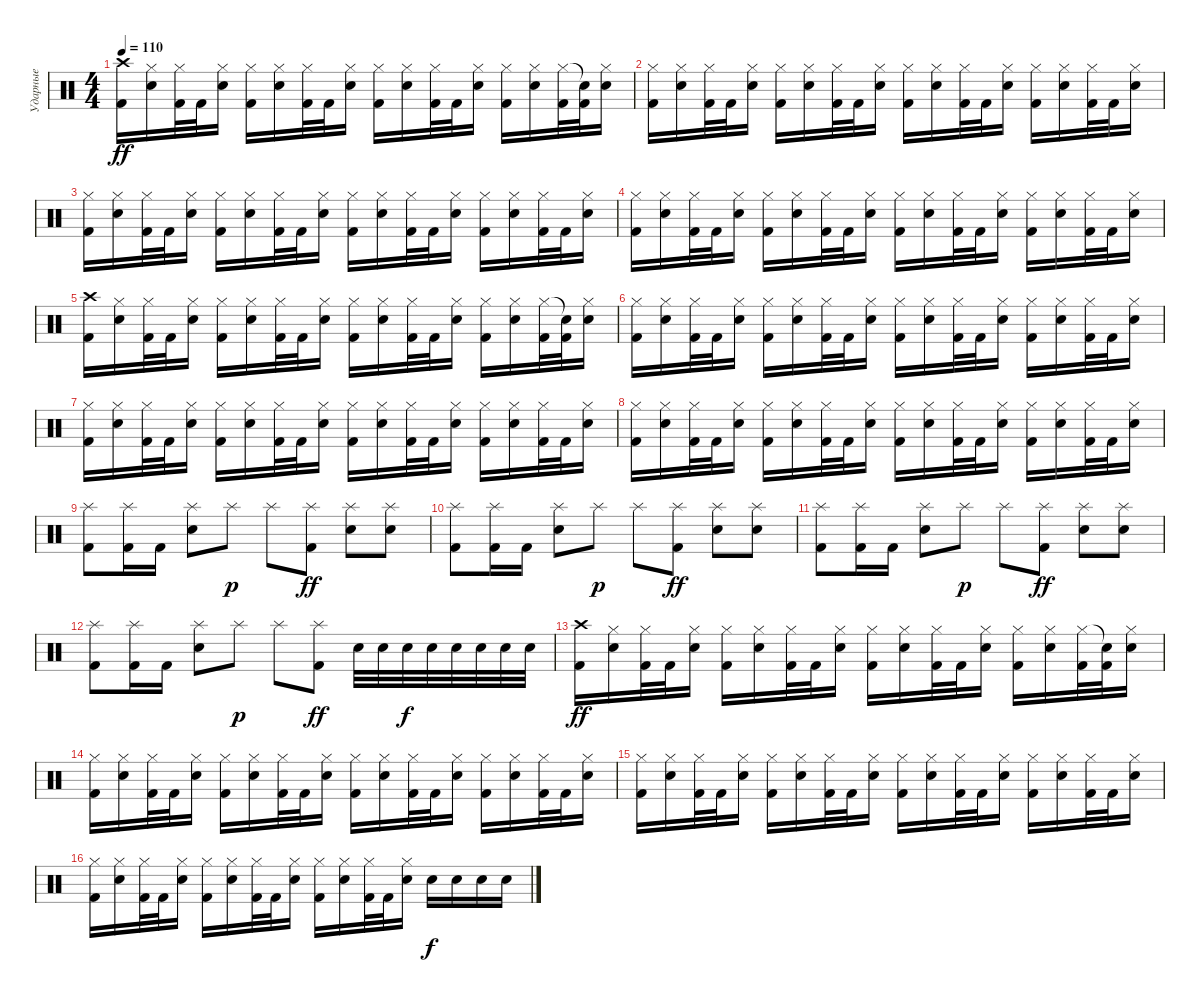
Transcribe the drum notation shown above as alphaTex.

\track ("Ударные" "Ударные") {instrument percussion}
\staff {score}
\articulation defaults
\ts (4 4)
\tempo 110
\clef neutral
\ks c
("Crash high (hit)" "Kick (hit) 2").16{dy ff} ("Hi-Hat (closed)" "Electric Snare (hit)").16 ("Hi-Hat (closed)" "Kick (hit) 2").32 "Kick (hit) 2".32 ("Hi-Hat (closed)" "Electric Snare (hit)").16 ("Hi-Hat (closed)" "Kick (hit) 2").16 ("Hi-Hat (closed)" "Electric Snare (hit)").16 ("Hi-Hat (closed)" "Kick (hit) 2").32 "Kick (hit) 2".32 ("Hi-Hat (closed)" "Electric Snare (hit)").16 ("Hi-Hat (closed)" "Kick (hit) 2").16 ("Hi-Hat (closed)" "Electric Snare (hit)").16 ("Hi-Hat (closed)" "Kick (hit) 2").32 "Kick (hit) 2".32 ("Hi-Hat (closed)" "Electric Snare (hit)").16 ("Hi-Hat (closed)" "Kick (hit) 2").16 ("Hi-Hat (closed)" "Electric Snare (hit)").16 ("Hi-Hat (closed)" "Kick (hit) 2").32 ("Snare (hit)"{t} "Kick (hit) 2").32 ("Hi-Hat (closed)" "Electric Snare (hit)").16 |
("Hi-Hat (closed)" "Kick (hit) 2").16 ("Hi-Hat (closed)" "Electric Snare (hit)").16 ("Hi-Hat (closed)" "Kick (hit) 2").32 "Kick (hit) 2".32 ("Hi-Hat (closed)" "Electric Snare (hit)").16 ("Hi-Hat (closed)" "Kick (hit) 2").16 ("Hi-Hat (closed)" "Electric Snare (hit)").16 ("Hi-Hat (closed)" "Kick (hit) 2").32 "Kick (hit) 2".32 ("Hi-Hat (closed)" "Electric Snare (hit)").16 ("Hi-Hat (closed)" "Kick (hit) 2").16 ("Hi-Hat (closed)" "Electric Snare (hit)").16 ("Hi-Hat (closed)" "Kick (hit) 2").32 "Kick (hit) 2".32 ("Hi-Hat (closed)" "Electric Snare (hit)").16 ("Hi-Hat (closed)" "Kick (hit) 2").16 ("Hi-Hat (closed)" "Electric Snare (hit)").16 ("Hi-Hat (closed)" "Kick (hit) 2").32 "Kick (hit) 2".32 ("Hi-Hat (closed)" "Electric Snare (hit)").16 |
("Hi-Hat (closed)" "Kick (hit) 2").16 ("Hi-Hat (closed)" "Electric Snare (hit)").16 ("Hi-Hat (closed)" "Kick (hit) 2").32 "Kick (hit) 2".32 ("Hi-Hat (closed)" "Electric Snare (hit)").16 ("Hi-Hat (closed)" "Kick (hit) 2").16 ("Hi-Hat (closed)" "Electric Snare (hit)").16 ("Hi-Hat (closed)" "Kick (hit) 2").32 "Kick (hit) 2".32 ("Hi-Hat (closed)" "Electric Snare (hit)").16 ("Hi-Hat (closed)" "Kick (hit) 2").16 ("Hi-Hat (closed)" "Electric Snare (hit)").16 ("Hi-Hat (closed)" "Kick (hit) 2").32 "Kick (hit) 2".32 ("Hi-Hat (closed)" "Electric Snare (hit)").16 ("Hi-Hat (closed)" "Kick (hit) 2").16 ("Hi-Hat (closed)" "Electric Snare (hit)").16 ("Hi-Hat (closed)" "Kick (hit) 2").32 "Kick (hit) 2".32 ("Hi-Hat (closed)" "Electric Snare (hit)").16 |
("Hi-Hat (closed)" "Kick (hit) 2").16 ("Hi-Hat (closed)" "Electric Snare (hit)").16 ("Hi-Hat (closed)" "Kick (hit) 2").32 "Kick (hit) 2".32 ("Hi-Hat (closed)" "Electric Snare (hit)").16 ("Hi-Hat (closed)" "Kick (hit) 2").16 ("Hi-Hat (closed)" "Electric Snare (hit)").16 ("Hi-Hat (closed)" "Kick (hit) 2").32 "Kick (hit) 2".32 ("Hi-Hat (closed)" "Electric Snare (hit)").16 ("Hi-Hat (closed)" "Kick (hit) 2").16 ("Hi-Hat (closed)" "Electric Snare (hit)").16 ("Hi-Hat (closed)" "Kick (hit) 2").32 "Kick (hit) 2".32 ("Hi-Hat (closed)" "Electric Snare (hit)").16 ("Hi-Hat (closed)" "Kick (hit) 2").16 ("Hi-Hat (closed)" "Electric Snare (hit)").16 ("Hi-Hat (closed)" "Kick (hit) 2").32 "Kick (hit) 2".32 ("Hi-Hat (closed)" "Electric Snare (hit)").16 |
("Crash high (hit)" "Kick (hit) 2").16 ("Hi-Hat (closed)" "Electric Snare (hit)").16 ("Hi-Hat (closed)" "Kick (hit) 2").32 "Kick (hit) 2".32 ("Hi-Hat (closed)" "Electric Snare (hit)").16 ("Hi-Hat (closed)" "Kick (hit) 2").16 ("Hi-Hat (closed)" "Electric Snare (hit)").16 ("Hi-Hat (closed)" "Kick (hit) 2").32 "Kick (hit) 2".32 ("Hi-Hat (closed)" "Electric Snare (hit)").16 ("Hi-Hat (closed)" "Kick (hit) 2").16 ("Hi-Hat (closed)" "Electric Snare (hit)").16 ("Hi-Hat (closed)" "Kick (hit) 2").32 "Kick (hit) 2".32 ("Hi-Hat (closed)" "Electric Snare (hit)").16 ("Hi-Hat (closed)" "Kick (hit) 2").16 ("Hi-Hat (closed)" "Electric Snare (hit)").16 ("Hi-Hat (closed)" "Kick (hit) 2").32 ("Snare (hit)"{t} "Kick (hit) 2").32 ("Hi-Hat (closed)" "Electric Snare (hit)").16 |
("Hi-Hat (closed)" "Kick (hit) 2").16 ("Hi-Hat (closed)" "Electric Snare (hit)").16 ("Hi-Hat (closed)" "Kick (hit) 2").32 "Kick (hit) 2".32 ("Hi-Hat (closed)" "Electric Snare (hit)").16 ("Hi-Hat (closed)" "Kick (hit) 2").16 ("Hi-Hat (closed)" "Electric Snare (hit)").16 ("Hi-Hat (closed)" "Kick (hit) 2").32 "Kick (hit) 2".32 ("Hi-Hat (closed)" "Electric Snare (hit)").16 ("Hi-Hat (closed)" "Kick (hit) 2").16 ("Hi-Hat (closed)" "Electric Snare (hit)").16 ("Hi-Hat (closed)" "Kick (hit) 2").32 "Kick (hit) 2".32 ("Hi-Hat (closed)" "Electric Snare (hit)").16 ("Hi-Hat (closed)" "Kick (hit) 2").16 ("Hi-Hat (closed)" "Electric Snare (hit)").16 ("Hi-Hat (closed)" "Kick (hit) 2").32 "Kick (hit) 2".32 ("Hi-Hat (closed)" "Electric Snare (hit)").16 |
("Hi-Hat (closed)" "Kick (hit) 2").16 ("Hi-Hat (closed)" "Electric Snare (hit)").16 ("Hi-Hat (closed)" "Kick (hit) 2").32 "Kick (hit) 2".32 ("Hi-Hat (closed)" "Electric Snare (hit)").16 ("Hi-Hat (closed)" "Kick (hit) 2").16 ("Hi-Hat (closed)" "Electric Snare (hit)").16 ("Hi-Hat (closed)" "Kick (hit) 2").32 "Kick (hit) 2".32 ("Hi-Hat (closed)" "Electric Snare (hit)").16 ("Hi-Hat (closed)" "Kick (hit) 2").16 ("Hi-Hat (closed)" "Electric Snare (hit)").16 ("Hi-Hat (closed)" "Kick (hit) 2").32 "Kick (hit) 2".32 ("Hi-Hat (closed)" "Electric Snare (hit)").16 ("Hi-Hat (closed)" "Kick (hit) 2").16 ("Hi-Hat (closed)" "Electric Snare (hit)").16 ("Hi-Hat (closed)" "Kick (hit) 2").32 "Kick (hit) 2".32 ("Hi-Hat (closed)" "Electric Snare (hit)").16 |
("Hi-Hat (closed)" "Kick (hit) 2").16 ("Hi-Hat (closed)" "Electric Snare (hit)").16 ("Hi-Hat (closed)" "Kick (hit) 2").32 "Kick (hit) 2".32 ("Hi-Hat (closed)" "Electric Snare (hit)").16 ("Hi-Hat (closed)" "Kick (hit) 2").16 ("Hi-Hat (closed)" "Electric Snare (hit)").16 ("Hi-Hat (closed)" "Kick (hit) 2").32 "Kick (hit) 2".32 ("Hi-Hat (closed)" "Electric Snare (hit)").16 ("Hi-Hat (closed)" "Kick (hit) 2").16 ("Hi-Hat (closed)" "Electric Snare (hit)").16 ("Hi-Hat (closed)" "Kick (hit) 2").32 "Kick (hit) 2".32 ("Hi-Hat (closed)" "Electric Snare (hit)").16 ("Hi-Hat (closed)" "Kick (hit) 2").16 ("Hi-Hat (closed)" "Electric Snare (hit)").16 ("Hi-Hat (closed)" "Kick (hit) 2").32 "Kick (hit) 2".32 ("Hi-Hat (closed)" "Electric Snare (hit)").16 |
("Splash (hit)" "Kick (hit) 2").8 ("Splash (hit)" "Kick (hit) 2").16 "Kick (hit) 2".16 ("Splash (hit)" "Electric Snare (hit)").8 "Splash (hit)".8{dy p} "Splash (hit)".8 ("Splash (hit)" "Kick (hit) 2").8{dy ff} ("Splash (hit)" "Electric Snare (hit)").8 ("Splash (hit)" "Electric Snare (hit)").8 |
("Splash (hit)" "Kick (hit) 2").8 ("Splash (hit)" "Kick (hit) 2").16 "Kick (hit) 2".16 ("Splash (hit)" "Electric Snare (hit)").8 "Splash (hit)".8{dy p} "Splash (hit)".8 ("Splash (hit)" "Kick (hit) 2").8{dy ff} ("Splash (hit)" "Electric Snare (hit)").8 ("Splash (hit)" "Electric Snare (hit)").8 |
("Splash (hit)" "Kick (hit) 2").8 ("Splash (hit)" "Kick (hit) 2").16 "Kick (hit) 2".16 ("Splash (hit)" "Electric Snare (hit)").8 "Splash (hit)".8{dy p} "Splash (hit)".8 ("Splash (hit)" "Kick (hit) 2").8{dy ff} ("Splash (hit)" "Electric Snare (hit)").8 ("Splash (hit)" "Electric Snare (hit)").8 |
("Splash (hit)" "Kick (hit) 2").8 ("Splash (hit)" "Kick (hit) 2").16 "Kick (hit) 2".16 ("Splash (hit)" "Electric Snare (hit)").8 "Splash (hit)".8{dy p} "Splash (hit)".8 ("Splash (hit)" "Kick (hit) 2").8{dy ff} "Electric Snare (hit)".32 "Electric Snare (hit)".32 "Electric Snare (hit)".32{dy f} "Electric Snare (hit)".32 "Electric Snare (hit)".32 "Electric Snare (hit)".32 "Electric Snare (hit)".32 "Electric Snare (hit)".32 |
("Crash high (hit)" "Kick (hit) 2").16{dy ff} ("Hi-Hat (closed)" "Electric Snare (hit)").16 ("Hi-Hat (closed)" "Kick (hit) 2").32 "Kick (hit) 2".32 ("Hi-Hat (closed)" "Electric Snare (hit)").16 ("Hi-Hat (closed)" "Kick (hit) 2").16 ("Hi-Hat (closed)" "Electric Snare (hit)").16 ("Hi-Hat (closed)" "Kick (hit) 2").32 "Kick (hit) 2".32 ("Hi-Hat (closed)" "Electric Snare (hit)").16 ("Hi-Hat (closed)" "Kick (hit) 2").16 ("Hi-Hat (closed)" "Electric Snare (hit)").16 ("Hi-Hat (closed)" "Kick (hit) 2").32 "Kick (hit) 2".32 ("Hi-Hat (closed)" "Electric Snare (hit)").16 ("Hi-Hat (closed)" "Kick (hit) 2").16 ("Hi-Hat (closed)" "Electric Snare (hit)").16 ("Hi-Hat (closed)" "Kick (hit) 2").32 ("Snare (hit)"{t} "Kick (hit) 2").32 ("Hi-Hat (closed)" "Electric Snare (hit)").16 |
("Hi-Hat (closed)" "Kick (hit) 2").16 ("Hi-Hat (closed)" "Electric Snare (hit)").16 ("Hi-Hat (closed)" "Kick (hit) 2").32 "Kick (hit) 2".32 ("Hi-Hat (closed)" "Electric Snare (hit)").16 ("Hi-Hat (closed)" "Kick (hit) 2").16 ("Hi-Hat (closed)" "Electric Snare (hit)").16 ("Hi-Hat (closed)" "Kick (hit) 2").32 "Kick (hit) 2".32 ("Hi-Hat (closed)" "Electric Snare (hit)").16 ("Hi-Hat (closed)" "Kick (hit) 2").16 ("Hi-Hat (closed)" "Electric Snare (hit)").16 ("Hi-Hat (closed)" "Kick (hit) 2").32 "Kick (hit) 2".32 ("Hi-Hat (closed)" "Electric Snare (hit)").16 ("Hi-Hat (closed)" "Kick (hit) 2").16 ("Hi-Hat (closed)" "Electric Snare (hit)").16 ("Hi-Hat (closed)" "Kick (hit) 2").32 "Kick (hit) 2".32 ("Hi-Hat (closed)" "Electric Snare (hit)").16 |
("Hi-Hat (closed)" "Kick (hit) 2").16 ("Hi-Hat (closed)" "Electric Snare (hit)").16 ("Hi-Hat (closed)" "Kick (hit) 2").32 "Kick (hit) 2".32 ("Hi-Hat (closed)" "Electric Snare (hit)").16 ("Hi-Hat (closed)" "Kick (hit) 2").16 ("Hi-Hat (closed)" "Electric Snare (hit)").16 ("Hi-Hat (closed)" "Kick (hit) 2").32 "Kick (hit) 2".32 ("Hi-Hat (closed)" "Electric Snare (hit)").16 ("Hi-Hat (closed)" "Kick (hit) 2").16 ("Hi-Hat (closed)" "Electric Snare (hit)").16 ("Hi-Hat (closed)" "Kick (hit) 2").32 "Kick (hit) 2".32 ("Hi-Hat (closed)" "Electric Snare (hit)").16 ("Hi-Hat (closed)" "Kick (hit) 2").16 ("Hi-Hat (closed)" "Electric Snare (hit)").16 ("Hi-Hat (closed)" "Kick (hit) 2").32 "Kick (hit) 2".32 ("Hi-Hat (closed)" "Electric Snare (hit)").16 |
("Hi-Hat (closed)" "Kick (hit) 2").16 ("Hi-Hat (closed)" "Electric Snare (hit)").16 ("Hi-Hat (closed)" "Kick (hit) 2").32 "Kick (hit) 2".32 ("Hi-Hat (closed)" "Electric Snare (hit)").16 ("Hi-Hat (closed)" "Kick (hit) 2").16 ("Hi-Hat (closed)" "Electric Snare (hit)").16 ("Hi-Hat (closed)" "Kick (hit) 2").32 "Kick (hit) 2".32 ("Hi-Hat (closed)" "Electric Snare (hit)").16 ("Hi-Hat (closed)" "Kick (hit) 2").16 ("Hi-Hat (closed)" "Electric Snare (hit)").16 ("Hi-Hat (closed)" "Kick (hit) 2").32 "Kick (hit) 2".32 ("Hi-Hat (closed)" "Electric Snare (hit)").16 "Electric Snare (hit)".16{dy f} "Electric Snare (hit)".16 "Electric Snare (hit)".16 "Electric Snare (hit)".16
